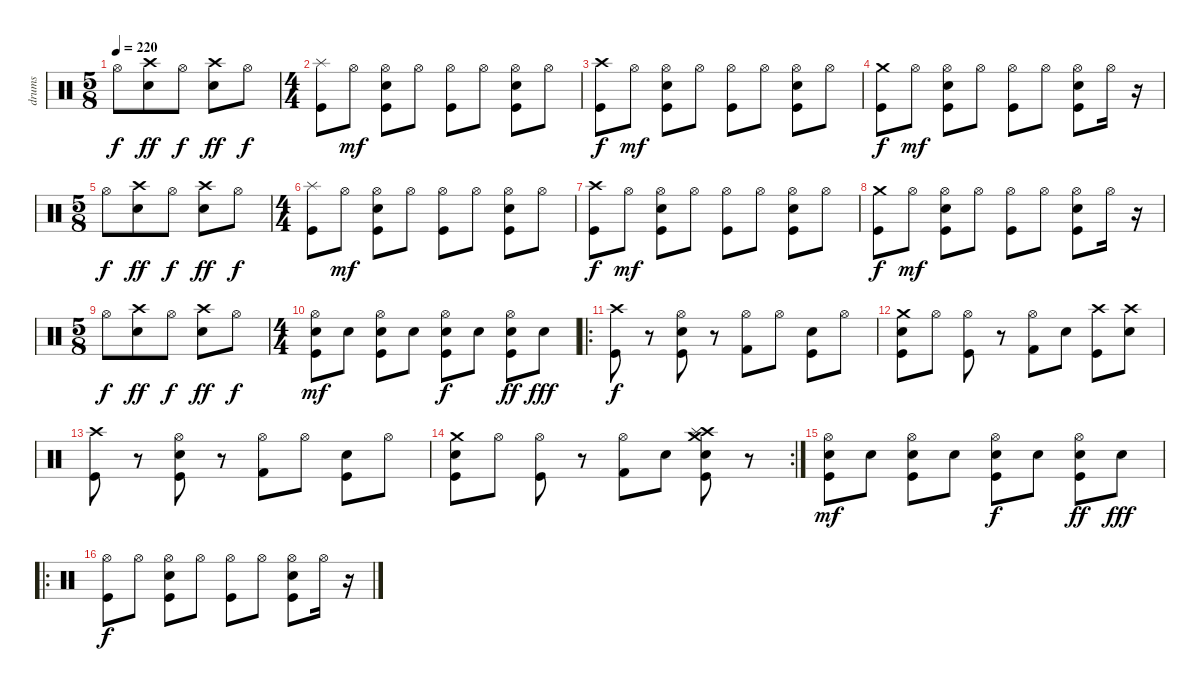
\track ("drums" "drums") {instrument percussion}
\staff {score}
\articulation defaults
\ts (5 8)
\tempo 220
\clef neutral
\ks c "Hi-Hat (open)".8{dy f}
("Crash high (hit)" "Snare (hit) 2").8{dy ff} "Hi-Hat (open)".8{dy f} ("Crash high (hit)" "Snare (hit) 2").8{dy ff} "Hi-Hat (open)".8{dy f} |
\ts (4 4)
("Splash (hit)" "Kick (hit)").8 "Hi-Hat (open)".8{dy mf} ("Hi-Hat (open)" "Snare (hit) 2" "Kick (hit)").8 "Hi-Hat (open)".8 ("Hi-Hat (open)" "Kick (hit)").8 "Hi-Hat (open)".8 ("Hi-Hat (open)" "Snare (hit) 2" "Kick (hit)").8 "Hi-Hat (open)".8 |
("Crash high (hit)" "Kick (hit)").8{dy f} "Hi-Hat (open)".8{dy mf} ("Hi-Hat (open)" "Snare (hit) 2" "Kick (hit)").8 "Hi-Hat (open)".8 ("Hi-Hat (open)" "Kick (hit)").8 "Hi-Hat (open)".8 ("Hi-Hat (open)" "Snare (hit) 2" "Kick (hit)").8 "Hi-Hat (open)".8 |
("Crash medium (hit)" "Kick (hit)").8{dy f} "Hi-Hat (open)".8{dy mf} ("Hi-Hat (open)" "Snare (hit) 2" "Kick (hit)").8 "Hi-Hat (open)".8 ("Hi-Hat (open)" "Kick (hit)").8 "Hi-Hat (open)".8 ("Hi-Hat (open)" "Snare (hit) 2" "Kick (hit)").8 "Hi-Hat (open)".16 r.16 |
\ts (5 8)
"Hi-Hat (open)".8{dy f} ("Crash high (hit)" "Snare (hit) 2").8{dy ff} "Hi-Hat (open)".8{dy f} ("Crash high (hit)" "Snare (hit) 2").8{dy ff} "Hi-Hat (open)".8{dy f} |
\ts (4 4)
("Splash (hit)" "Kick (hit)").8 "Hi-Hat (open)".8{dy mf} ("Hi-Hat (open)" "Snare (hit) 2" "Kick (hit)").8 "Hi-Hat (open)".8 ("Hi-Hat (open)" "Kick (hit)").8 "Hi-Hat (open)".8 ("Hi-Hat (open)" "Snare (hit) 2" "Kick (hit)").8 "Hi-Hat (open)".8 |
("Crash high (hit)" "Kick (hit)").8{dy f} "Hi-Hat (open)".8{dy mf} ("Hi-Hat (open)" "Snare (hit) 2" "Kick (hit)").8 "Hi-Hat (open)".8 ("Hi-Hat (open)" "Kick (hit)").8 "Hi-Hat (open)".8 ("Hi-Hat (open)" "Snare (hit) 2" "Kick (hit)").8 "Hi-Hat (open)".8 |
("Crash medium (hit)" "Kick (hit)").8{dy f} "Hi-Hat (open)".8{dy mf} ("Hi-Hat (open)" "Snare (hit) 2" "Kick (hit)").8 "Hi-Hat (open)".8 ("Hi-Hat (open)" "Kick (hit)").8 "Hi-Hat (open)".8 ("Hi-Hat (open)" "Snare (hit) 2" "Kick (hit)").8 "Hi-Hat (open)".16 r.16 |
\ts (5 8)
"Hi-Hat (open)".8{dy f} ("Crash high (hit)" "Snare (hit) 2").8{dy ff} "Hi-Hat (open)".8{dy f} ("Crash high (hit)" "Snare (hit) 2").8{dy ff} "Hi-Hat (open)".8{dy f} |
\ts (4 4)
("Hi-Hat (open)" "Electric Snare (hit)" "Kick (hit)").8{dy mf} "Electric Snare (hit)".8 ("Hi-Hat (open)" "Electric Snare (hit)" "Kick (hit)").8 "Electric Snare (hit)".8 ("Hi-Hat (open)" "Electric Snare (hit)" "Kick (hit)").8{dy f} "Electric Snare (hit)".8 ("Hi-Hat (open)" "Electric Snare (hit)" "Kick (hit)").8{dy ff} "Electric Snare (hit)".8{dy fff} |
\ro
("Crash high (hit)" "Kick (hit)").8{dy f} r.8 ("Hi-Hat (open)" "Electric Snare (hit)" "Kick (hit)").8 r.8 ("Hi-Hat (open)" "Kick (hit) 2").8 "Hi-Hat (open)".8 ("Electric Snare (hit)" "Kick (hit)").8 "Hi-Hat (open)".8 |
("Crash medium (hit)" "Electric Snare (hit)" "Kick (hit)").8 "Hi-Hat (open)".8 ("Hi-Hat (open)" "Kick (hit)").8 r.8 ("Hi-Hat (open)" "Kick (hit) 2").8 "Electric Snare (hit)".8 ("Crash high (hit)" "Kick (hit)").8 ("Crash high (hit)" "Electric Snare (hit)").8 |
("Crash high (hit)" "Kick (hit)").8 r.8 ("Hi-Hat (open)" "Electric Snare (hit)" "Kick (hit)").8 r.8 ("Hi-Hat (open)" "Kick (hit) 2").8 "Hi-Hat (open)".8 ("Electric Snare (hit)" "Kick (hit)").8 "Hi-Hat (open)".8 |
\rc 2
("Crash medium (hit)" "Electric Snare (hit)" "Kick (hit)").8 "Hi-Hat (open)".8 ("Hi-Hat (open)" "Kick (hit)").8 r.8 ("Hi-Hat (open)" "Kick (hit) 2").8 "Electric Snare (hit)".8 ("Crash high (hit)" "Splash (hit)" "Crash medium (hit)" "Electric Snare (hit)" "Kick (hit)").8 r.8 |
("Hi-Hat (open)" "Electric Snare (hit)" "Kick (hit)").8{dy mf} "Electric Snare (hit)".8 ("Hi-Hat (open)" "Electric Snare (hit)" "Kick (hit)").8 "Electric Snare (hit)".8 ("Hi-Hat (open)" "Electric Snare (hit)" "Kick (hit)").8{dy f} "Electric Snare (hit)".8 ("Hi-Hat (open)" "Electric Snare (hit)" "Kick (hit)").8{dy ff} "Electric Snare (hit)".8{dy fff} |
\ro
("Hi-Hat (open)" "Kick (hit)").8{dy f} "Hi-Hat (open)".8 ("Hi-Hat (open)" "Electric Snare (hit)" "Kick (hit)").8 "Hi-Hat (open)".8 ("Hi-Hat (open)" "Kick (hit)").8 "Hi-Hat (open)".8 ("Hi-Hat (open)" "Electric Snare (hit)" "Kick (hit)").8 "Hi-Hat (open)".16 r.16
